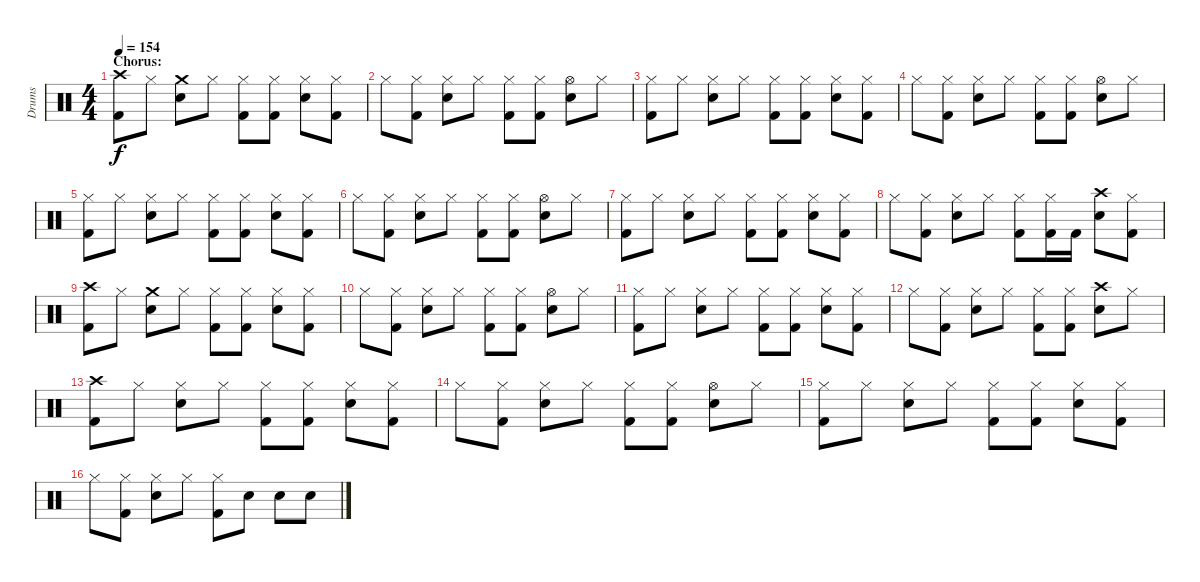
\track ("Drums" "Drums") {instrument percussion}
\staff {score}
\articulation defaults
\ts (4 4)
\section ("" "Chorus:")
\tempo 154
\clef neutral
\ks c
("Crash high (hit)" "Kick (hit) 2").8{dy f} "Hi-Hat (closed)".8 ("Crash medium (hit)" "Snare (hit) 2").8 "Hi-Hat (closed)".8 ("Hi-Hat (closed)" "Kick (hit) 2").8 ("Hi-Hat (closed)" "Kick (hit) 2").8 ("Hi-Hat (closed)" "Snare (hit) 2").8 ("Hi-Hat (closed)" "Kick (hit) 2").8 |
"Hi-Hat (closed)".8 ("Hi-Hat (closed)" "Kick (hit) 2").8 ("Hi-Hat (closed)" "Snare (hit) 2").8 "Hi-Hat (closed)".8 ("Hi-Hat (closed)" "Kick (hit) 2").8 ("Hi-Hat (closed)" "Kick (hit) 2").8 ("Hi-Hat (open)" "Snare (hit) 2").8 "Hi-Hat (closed)".8 |
("Hi-Hat (closed)" "Kick (hit) 2").8 "Hi-Hat (closed)".8 ("Hi-Hat (closed)" "Snare (hit) 2").8 "Hi-Hat (closed)".8 ("Hi-Hat (closed)" "Kick (hit) 2").8 ("Hi-Hat (closed)" "Kick (hit) 2").8 ("Hi-Hat (closed)" "Snare (hit) 2").8 ("Hi-Hat (closed)" "Kick (hit) 2").8 |
"Hi-Hat (closed)".8 ("Hi-Hat (closed)" "Kick (hit) 2").8 ("Hi-Hat (closed)" "Snare (hit) 2").8 "Hi-Hat (closed)".8 ("Hi-Hat (closed)" "Kick (hit) 2").8 ("Hi-Hat (closed)" "Kick (hit) 2").8 ("Hi-Hat (open)" "Snare (hit) 2").8 "Hi-Hat (closed)".8 |
("Hi-Hat (closed)" "Kick (hit) 2").8 "Hi-Hat (closed)".8 ("Hi-Hat (closed)" "Snare (hit) 2").8 "Hi-Hat (closed)".8 ("Hi-Hat (closed)" "Kick (hit) 2").8 ("Hi-Hat (closed)" "Kick (hit) 2").8 ("Hi-Hat (closed)" "Snare (hit) 2").8 ("Hi-Hat (closed)" "Kick (hit) 2").8 |
"Hi-Hat (closed)".8 ("Hi-Hat (closed)" "Kick (hit) 2").8 ("Hi-Hat (closed)" "Snare (hit) 2").8 "Hi-Hat (closed)".8 ("Hi-Hat (closed)" "Kick (hit) 2").8 ("Hi-Hat (closed)" "Kick (hit) 2").8 ("Hi-Hat (open)" "Snare (hit) 2").8 "Hi-Hat (closed)".8 |
("Hi-Hat (closed)" "Kick (hit) 2").8 "Hi-Hat (closed)".8 ("Hi-Hat (closed)" "Snare (hit) 2").8 "Hi-Hat (closed)".8 ("Hi-Hat (closed)" "Kick (hit) 2").8 ("Hi-Hat (closed)" "Kick (hit) 2").8 ("Hi-Hat (closed)" "Snare (hit) 2").8 ("Hi-Hat (closed)" "Kick (hit) 2").8 |
"Hi-Hat (closed)".8 ("Hi-Hat (closed)" "Kick (hit) 2").8 ("Hi-Hat (closed)" "Snare (hit) 2").8 "Hi-Hat (closed)".8 ("Hi-Hat (closed)" "Kick (hit) 2").8 ("Hi-Hat (closed)" "Kick (hit) 2").16 "Kick (hit) 2".16 ("Crash high (hit)" "Snare (hit) 2").8 ("Hi-Hat (closed)" "Kick (hit) 2").8 |
("Crash high (hit)" "Kick (hit) 2").8 "Hi-Hat (closed)".8 ("Crash medium (hit)" "Snare (hit) 2").8 "Hi-Hat (closed)".8 ("Hi-Hat (closed)" "Kick (hit) 2").8 ("Hi-Hat (closed)" "Kick (hit) 2").8 ("Hi-Hat (closed)" "Snare (hit) 2").8 ("Hi-Hat (closed)" "Kick (hit) 2").8 |
"Hi-Hat (closed)".8 ("Hi-Hat (closed)" "Kick (hit) 2").8 ("Hi-Hat (closed)" "Snare (hit) 2").8 "Hi-Hat (closed)".8 ("Hi-Hat (closed)" "Kick (hit) 2").8 ("Hi-Hat (closed)" "Kick (hit) 2").8 ("Hi-Hat (open)" "Snare (hit) 2").8 "Hi-Hat (closed)".8 |
("Hi-Hat (closed)" "Kick (hit) 2").8 "Hi-Hat (closed)".8 ("Hi-Hat (closed)" "Snare (hit) 2").8 "Hi-Hat (closed)".8 ("Hi-Hat (closed)" "Kick (hit) 2").8 ("Hi-Hat (closed)" "Kick (hit) 2").8 ("Hi-Hat (closed)" "Snare (hit) 2").8 ("Hi-Hat (closed)" "Kick (hit) 2").8 |
"Hi-Hat (closed)".8 ("Hi-Hat (closed)" "Kick (hit) 2").8 ("Hi-Hat (closed)" "Snare (hit) 2").8 "Hi-Hat (closed)".8 ("Hi-Hat (closed)" "Kick (hit) 2").8 ("Hi-Hat (closed)" "Kick (hit) 2").8 ("Crash high (hit)" "Snare (hit) 2").8 "Hi-Hat (closed)".8 |
("Crash high (hit)" "Kick (hit) 2").8 "Hi-Hat (closed)".8 ("Hi-Hat (closed)" "Snare (hit) 2").8 "Hi-Hat (closed)".8 ("Hi-Hat (closed)" "Kick (hit) 2").8 ("Hi-Hat (closed)" "Kick (hit) 2").8 ("Hi-Hat (closed)" "Snare (hit) 2").8 ("Hi-Hat (closed)" "Kick (hit) 2").8 |
"Hi-Hat (closed)".8 ("Hi-Hat (closed)" "Kick (hit) 2").8 ("Hi-Hat (closed)" "Snare (hit) 2").8 "Hi-Hat (closed)".8 ("Hi-Hat (closed)" "Kick (hit) 2").8 ("Hi-Hat (closed)" "Kick (hit) 2").8 ("Hi-Hat (open)" "Snare (hit) 2").8 "Hi-Hat (closed)".8 |
("Hi-Hat (closed)" "Kick (hit) 2").8 "Hi-Hat (closed)".8 ("Hi-Hat (closed)" "Snare (hit) 2").8 "Hi-Hat (closed)".8 ("Hi-Hat (closed)" "Kick (hit) 2").8 ("Hi-Hat (closed)" "Kick (hit) 2").8 ("Hi-Hat (closed)" "Snare (hit) 2").8 ("Hi-Hat (closed)" "Kick (hit) 2").8 |
"Hi-Hat (closed)".8 ("Hi-Hat (closed)" "Kick (hit) 2").8 ("Hi-Hat (closed)" "Snare (hit) 2").8 "Hi-Hat (closed)".8 ("Hi-Hat (closed)" "Kick (hit) 2").8 "Snare (hit) 2".8 "Snare (hit) 2".8 "Snare (hit) 2".8
